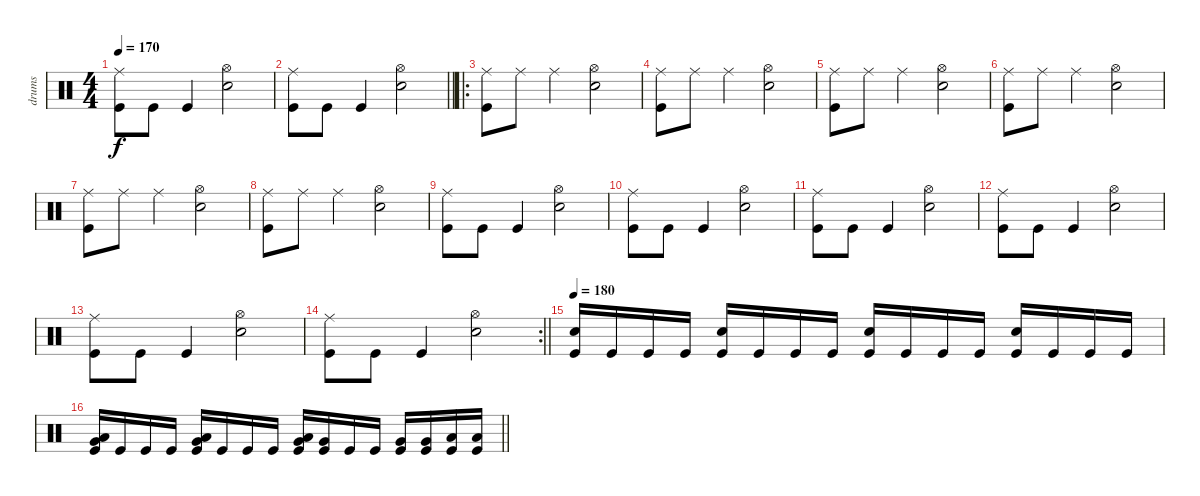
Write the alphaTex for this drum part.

\track ("drums" "drums") {instrument percussion}
\staff {score}
\articulation defaults
\ts (4 4)
\tempo 170
\clef neutral
\ks c
("Kick (hit)" "Ride (middle)").8{dy f} "Kick (hit)".8 "Kick (hit)".4 ("Electric Snare (hit)" "Hi-Hat (open)").2 |
\barLineRight lightlight
("Kick (hit)" "Ride (middle)").8 "Kick (hit)".8 "Kick (hit)".4 ("Electric Snare (hit)" "Hi-Hat (open)").2 |
\ro
\section ("" "")
("Kick (hit)" "Ride (middle)").8 "Ride (middle)".8 "Ride (middle)".4 ("Electric Snare (hit)" "Hi-Hat (open)").2 |
("Kick (hit)" "Ride (middle)").8 "Ride (middle)".8 "Ride (middle)".4 ("Electric Snare (hit)" "Hi-Hat (open)").2 |
("Kick (hit)" "Ride (middle)").8 "Ride (middle)".8 "Ride (middle)".4 ("Electric Snare (hit)" "Hi-Hat (open)").2 |
("Kick (hit)" "Ride (middle)").8 "Ride (middle)".8 "Ride (middle)".4 ("Electric Snare (hit)" "Hi-Hat (open)").2 |
("Kick (hit)" "Ride (middle)").8 "Ride (middle)".8 "Ride (middle)".4 ("Electric Snare (hit)" "Hi-Hat (open)").2 |
("Kick (hit)" "Ride (middle)").8 "Ride (middle)".8 "Ride (middle)".4 ("Electric Snare (hit)" "Hi-Hat (open)").2 |
("Kick (hit)" "Ride (middle)").8 "Kick (hit)".8 "Kick (hit)".4 ("Electric Snare (hit)" "Hi-Hat (open)").2 |
("Kick (hit)" "Ride (middle)").8 "Kick (hit)".8 "Kick (hit)".4 ("Electric Snare (hit)" "Hi-Hat (open)").2 |
("Kick (hit)" "Ride (middle)").8 "Kick (hit)".8 "Kick (hit)".4 ("Electric Snare (hit)" "Hi-Hat (open)").2 |
("Kick (hit)" "Ride (middle)").8 "Kick (hit)".8 "Kick (hit)".4 ("Electric Snare (hit)" "Hi-Hat (open)").2 |
("Kick (hit)" "Ride (middle)").8 "Kick (hit)".8 "Kick (hit)".4 ("Electric Snare (hit)" "Hi-Hat (open)").2 |
\rc 2
\barLineRight lightlight
("Kick (hit)" "Ride (middle)").8 "Kick (hit)".8 "Kick (hit)".4 ("Electric Snare (hit)" "Hi-Hat (open)").2 |
\section ("" "")
\tempo 180
("Kick (hit)" "Electric Snare (hit)").16 "Kick (hit)".16 "Kick (hit)".16 "Kick (hit)".16 ("Kick (hit)" "Electric Snare (hit)").16 "Kick (hit)".16 "Kick (hit)".16 "Kick (hit)".16 ("Kick (hit)" "Electric Snare (hit)").16 "Kick (hit)".16 "Kick (hit)".16 "Kick (hit)".16 ("Kick (hit)" "Electric Snare (hit)").16 "Kick (hit)".16 "Kick (hit)".16 "Kick (hit)".16 |
\barLineRight lightlight
("Kick (hit)" "Very Low Tom (hit)" "Low Floor Tom (hit)").16 "Kick (hit)".16 "Kick (hit)".16 "Kick (hit)".16 ("Kick (hit)" "Very Low Tom (hit)" "Low Floor Tom (hit)").16 "Kick (hit)".16 "Kick (hit)".16 "Kick (hit)".16 ("Kick (hit)" "Very Low Tom (hit)" "Low Floor Tom (hit)").16 ("Kick (hit)" "Very Low Tom (hit)").16 "Kick (hit)".16 "Kick (hit)".16 ("Kick (hit)" "Very Low Tom (hit)").16 ("Kick (hit)" "Very Low Tom (hit)").16 ("Kick (hit)" "Low Floor Tom (hit)").16 ("Kick (hit)" "Low Floor Tom (hit)").16
